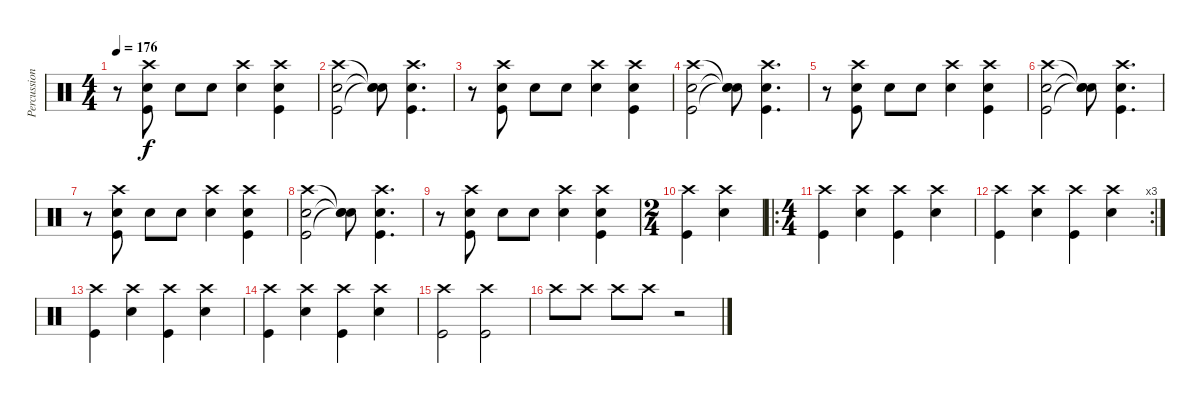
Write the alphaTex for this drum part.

\track ("Percussions" "Percussion") {instrument percussion}
\staff {score}
\articulation defaults
\ts (4 4)
\tempo 176
\clef neutral
\ks c
r.8{dy f} ("Crash high (hit)" "Snare (hit) 2" "Kick (hit)").8 "Snare (hit) 2".8 "Snare (hit) 2".8 ("Crash high (hit)" "Snare (hit) 2").4 ("Crash high (hit)" "Snare (hit) 2" "Kick (hit)").4 |
("Crash high (hit)" "Snare (hit) 2" "Kick (hit)").2 ("Snare (hit)"{t} "Snare (hit)"{t} "Snare (hit)"{t}).8 ("Crash high (hit)" "Snare (hit) 2" "Kick (hit)").4{d} |
r.8 ("Crash high (hit)" "Snare (hit) 2" "Kick (hit)").8 "Snare (hit) 2".8 "Snare (hit) 2".8 ("Crash high (hit)" "Snare (hit) 2").4 ("Crash high (hit)" "Snare (hit) 2" "Kick (hit)").4 |
("Crash high (hit)" "Snare (hit) 2" "Kick (hit)").2 ("Snare (hit)"{t} "Snare (hit)"{t} "Snare (hit)"{t}).8 ("Crash high (hit)" "Snare (hit) 2" "Kick (hit)").4{d} |
r.8 ("Crash high (hit)" "Snare (hit) 2" "Kick (hit)").8 "Snare (hit) 2".8 "Snare (hit) 2".8 ("Crash high (hit)" "Snare (hit) 2").4 ("Crash high (hit)" "Snare (hit) 2" "Kick (hit)").4 |
("Crash high (hit)" "Snare (hit) 2" "Kick (hit)").2 ("Snare (hit)"{t} "Snare (hit)"{t} "Snare (hit)"{t}).8 ("Crash high (hit)" "Snare (hit) 2" "Kick (hit)").4{d} |
r.8 ("Crash high (hit)" "Snare (hit) 2" "Kick (hit)").8 "Snare (hit) 2".8 "Snare (hit) 2".8 ("Crash high (hit)" "Snare (hit) 2").4 ("Crash high (hit)" "Snare (hit) 2" "Kick (hit)").4 |
("Crash high (hit)" "Snare (hit) 2" "Kick (hit)").2 ("Snare (hit)"{t} "Snare (hit)"{t} "Snare (hit)"{t}).8 ("Crash high (hit)" "Snare (hit) 2" "Kick (hit)").4{d} |
r.8 ("Crash high (hit)" "Snare (hit) 2" "Kick (hit)").8 "Snare (hit) 2".8 "Snare (hit) 2".8 ("Crash high (hit)" "Snare (hit) 2").4 ("Crash high (hit)" "Snare (hit) 2" "Kick (hit)").4 |
\ts (2 4)
("Crash high (hit)" "Kick (hit)").4 ("Crash high (hit)" "Snare (hit) 2").4 |
\ro
\ts (4 4)
("Crash high (hit)" "Kick (hit)").4 ("Crash high (hit)" "Snare (hit) 2").4 ("Crash high (hit)" "Kick (hit)").4 ("Crash high (hit)" "Snare (hit) 2").4 |
\rc 3
("Crash high (hit)" "Kick (hit)").4 ("Crash high (hit)" "Snare (hit) 2").4 ("Crash high (hit)" "Kick (hit)").4 ("Crash high (hit)" "Snare (hit) 2").4 |
("Crash high (hit)" "Kick (hit)").4 ("Crash high (hit)" "Snare (hit) 2").4 ("Crash high (hit)" "Kick (hit)").4 ("Crash high (hit)" "Snare (hit) 2").4 |
("Crash high (hit)" "Kick (hit)").4 ("Crash high (hit)" "Snare (hit) 2").4 ("Crash high (hit)" "Kick (hit)").4 ("Crash high (hit)" "Snare (hit) 2").4 |
("Crash high (hit)" "Kick (hit)").2 ("Crash high (hit)" "Kick (hit)").2 |
"Crash high (hit)".8 "Crash high (hit)".8 "Crash high (hit)".8 "Crash high (hit)".8 r.2
